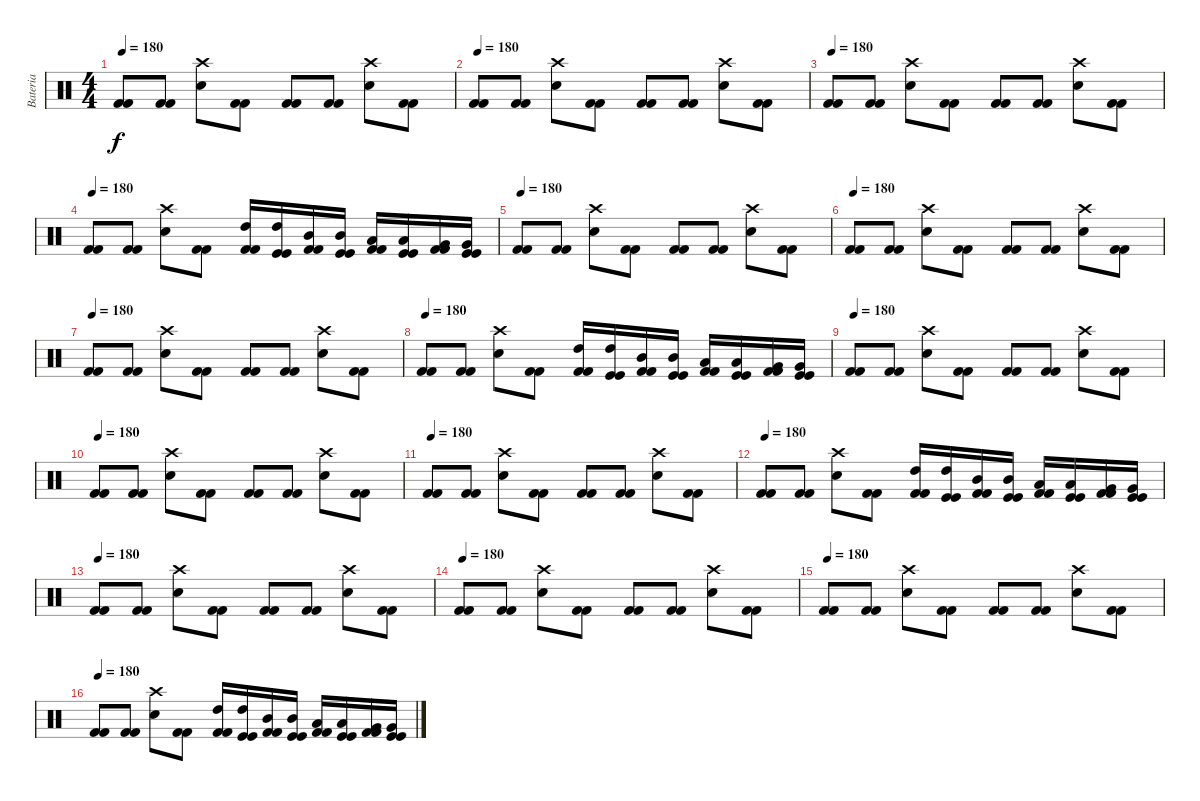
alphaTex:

\track ("Bateria" "Bateria") {instrument percussion}
\staff {score}
\articulation defaults
\ts (4 4)
\tempo 180
\clef neutral
\ks c
("Kick (hit) 2" "Kick (hit) 2").8{dy f} ("Kick (hit) 2" "Kick (hit) 2").8 ("Snare (hit) 2" "Crash high (hit)").8 ("Kick (hit) 2" "Kick (hit) 2").8 ("Kick (hit) 2" "Kick (hit) 2").8 ("Kick (hit) 2" "Kick (hit) 2").8 ("Snare (hit) 2" "Crash high (hit)").8 ("Kick (hit) 2" "Kick (hit) 2").8 |
\tempo 180
("Kick (hit) 2" "Kick (hit) 2").8 ("Kick (hit) 2" "Kick (hit) 2").8 ("Snare (hit) 2" "Crash high (hit)").8 ("Kick (hit) 2" "Kick (hit) 2").8 ("Kick (hit) 2" "Kick (hit) 2").8 ("Kick (hit) 2" "Kick (hit) 2").8 ("Snare (hit) 2" "Crash high (hit)").8 ("Kick (hit) 2" "Kick (hit) 2").8 |
\tempo 180
("Kick (hit) 2" "Kick (hit) 2").8 ("Kick (hit) 2" "Kick (hit) 2").8 ("Snare (hit) 2" "Crash high (hit)").8 ("Kick (hit) 2" "Kick (hit) 2").8 ("Kick (hit) 2" "Kick (hit) 2").8 ("Kick (hit) 2" "Kick (hit) 2").8 ("Snare (hit) 2" "Crash high (hit)").8 ("Kick (hit) 2" "Kick (hit) 2").8 |
\tempo 180
("Kick (hit) 2" "Kick (hit) 2").8 ("Kick (hit) 2" "Kick (hit) 2").8 ("Snare (hit) 2" "Crash high (hit)").8 ("Kick (hit) 2" "Kick (hit) 2").8 ("Kick (hit) 2" "Kick (hit) 2" "High Tom (hit)").16 ("Kick (hit)" "Kick (hit)" "High Tom (hit)").16 ("Kick (hit) 2" "Kick (hit) 2" "Mid Tom (hit)").16 ("Kick (hit)" "Kick (hit)" "Mid Tom (hit)").16 ("Kick (hit) 2" "Kick (hit) 2" "Low Tom (hit)").16 ("Kick (hit)" "Kick (hit)" "Low Tom (hit)").16 ("Kick (hit) 2" "Kick (hit) 2" "Very Low Tom (hit)").16 ("Kick (hit)" "Kick (hit)" "Very Low Tom (hit)").16 |
\tempo 180
("Kick (hit) 2" "Kick (hit) 2").8 ("Kick (hit) 2" "Kick (hit) 2").8 ("Snare (hit) 2" "Crash high (hit)").8 ("Kick (hit) 2" "Kick (hit) 2").8 ("Kick (hit) 2" "Kick (hit) 2").8 ("Kick (hit) 2" "Kick (hit) 2").8 ("Snare (hit) 2" "Crash high (hit)").8 ("Kick (hit) 2" "Kick (hit) 2").8 |
\tempo 180
("Kick (hit) 2" "Kick (hit) 2").8 ("Kick (hit) 2" "Kick (hit) 2").8 ("Snare (hit) 2" "Crash high (hit)").8 ("Kick (hit) 2" "Kick (hit) 2").8 ("Kick (hit) 2" "Kick (hit) 2").8 ("Kick (hit) 2" "Kick (hit) 2").8 ("Snare (hit) 2" "Crash high (hit)").8 ("Kick (hit) 2" "Kick (hit) 2").8 |
\tempo 180
("Kick (hit) 2" "Kick (hit) 2").8 ("Kick (hit) 2" "Kick (hit) 2").8 ("Snare (hit) 2" "Crash high (hit)").8 ("Kick (hit) 2" "Kick (hit) 2").8 ("Kick (hit) 2" "Kick (hit) 2").8 ("Kick (hit) 2" "Kick (hit) 2").8 ("Snare (hit) 2" "Crash high (hit)").8 ("Kick (hit) 2" "Kick (hit) 2").8 |
\tempo 180
("Kick (hit) 2" "Kick (hit) 2").8 ("Kick (hit) 2" "Kick (hit) 2").8 ("Snare (hit) 2" "Crash high (hit)").8 ("Kick (hit) 2" "Kick (hit) 2").8 ("Kick (hit) 2" "Kick (hit) 2" "High Tom (hit)").16 ("Kick (hit)" "Kick (hit)" "High Tom (hit)").16 ("Kick (hit) 2" "Kick (hit) 2" "Mid Tom (hit)").16 ("Kick (hit)" "Kick (hit)" "Mid Tom (hit)").16 ("Kick (hit) 2" "Kick (hit) 2" "Low Tom (hit)").16 ("Kick (hit)" "Kick (hit)" "Low Tom (hit)").16 ("Kick (hit) 2" "Kick (hit) 2" "Very Low Tom (hit)").16 ("Kick (hit)" "Kick (hit)" "Very Low Tom (hit)").16 |
\tempo 180
("Kick (hit) 2" "Kick (hit) 2").8 ("Kick (hit) 2" "Kick (hit) 2").8 ("Snare (hit) 2" "Crash high (hit)").8 ("Kick (hit) 2" "Kick (hit) 2").8 ("Kick (hit) 2" "Kick (hit) 2").8 ("Kick (hit) 2" "Kick (hit) 2").8 ("Snare (hit) 2" "Crash high (hit)").8 ("Kick (hit) 2" "Kick (hit) 2").8 |
\tempo 180
("Kick (hit) 2" "Kick (hit) 2").8 ("Kick (hit) 2" "Kick (hit) 2").8 ("Snare (hit) 2" "Crash high (hit)").8 ("Kick (hit) 2" "Kick (hit) 2").8 ("Kick (hit) 2" "Kick (hit) 2").8 ("Kick (hit) 2" "Kick (hit) 2").8 ("Snare (hit) 2" "Crash high (hit)").8 ("Kick (hit) 2" "Kick (hit) 2").8 |
\tempo 180
("Kick (hit) 2" "Kick (hit) 2").8 ("Kick (hit) 2" "Kick (hit) 2").8 ("Snare (hit) 2" "Crash high (hit)").8 ("Kick (hit) 2" "Kick (hit) 2").8 ("Kick (hit) 2" "Kick (hit) 2").8 ("Kick (hit) 2" "Kick (hit) 2").8 ("Snare (hit) 2" "Crash high (hit)").8 ("Kick (hit) 2" "Kick (hit) 2").8 |
\tempo 180
("Kick (hit) 2" "Kick (hit) 2").8 ("Kick (hit) 2" "Kick (hit) 2").8 ("Snare (hit) 2" "Crash high (hit)").8 ("Kick (hit) 2" "Kick (hit) 2").8 ("Kick (hit) 2" "Kick (hit) 2" "High Tom (hit)").16 ("Kick (hit)" "Kick (hit)" "High Tom (hit)").16 ("Kick (hit) 2" "Kick (hit) 2" "Mid Tom (hit)").16 ("Kick (hit)" "Kick (hit)" "Mid Tom (hit)").16 ("Kick (hit) 2" "Kick (hit) 2" "Low Tom (hit)").16 ("Kick (hit)" "Kick (hit)" "Low Tom (hit)").16 ("Kick (hit) 2" "Kick (hit) 2" "Very Low Tom (hit)").16 ("Kick (hit)" "Kick (hit)" "Very Low Tom (hit)").16 |
\tempo 180
("Kick (hit) 2" "Kick (hit) 2").8 ("Kick (hit) 2" "Kick (hit) 2").8 ("Snare (hit) 2" "Crash high (hit)").8 ("Kick (hit) 2" "Kick (hit) 2").8 ("Kick (hit) 2" "Kick (hit) 2").8 ("Kick (hit) 2" "Kick (hit) 2").8 ("Snare (hit) 2" "Crash high (hit)").8 ("Kick (hit) 2" "Kick (hit) 2").8 |
\tempo 180
("Kick (hit) 2" "Kick (hit) 2").8 ("Kick (hit) 2" "Kick (hit) 2").8 ("Snare (hit) 2" "Crash high (hit)").8 ("Kick (hit) 2" "Kick (hit) 2").8 ("Kick (hit) 2" "Kick (hit) 2").8 ("Kick (hit) 2" "Kick (hit) 2").8 ("Snare (hit) 2" "Crash high (hit)").8 ("Kick (hit) 2" "Kick (hit) 2").8 |
\tempo 180
("Kick (hit) 2" "Kick (hit) 2").8 ("Kick (hit) 2" "Kick (hit) 2").8 ("Snare (hit) 2" "Crash high (hit)").8 ("Kick (hit) 2" "Kick (hit) 2").8 ("Kick (hit) 2" "Kick (hit) 2").8 ("Kick (hit) 2" "Kick (hit) 2").8 ("Snare (hit) 2" "Crash high (hit)").8 ("Kick (hit) 2" "Kick (hit) 2").8 |
\tempo 180
("Kick (hit) 2" "Kick (hit) 2").8 ("Kick (hit) 2" "Kick (hit) 2").8 ("Snare (hit) 2" "Crash high (hit)").8 ("Kick (hit) 2" "Kick (hit) 2").8 ("Kick (hit) 2" "Kick (hit) 2" "High Tom (hit)").16 ("Kick (hit)" "Kick (hit)" "High Tom (hit)").16 ("Kick (hit) 2" "Kick (hit) 2" "Mid Tom (hit)").16 ("Kick (hit)" "Kick (hit)" "Mid Tom (hit)").16 ("Kick (hit) 2" "Kick (hit) 2" "Low Tom (hit)").16 ("Kick (hit)" "Kick (hit)" "Low Tom (hit)").16 ("Kick (hit) 2" "Kick (hit) 2" "Very Low Tom (hit)").16 ("Kick (hit)" "Kick (hit)" "Very Low Tom (hit)").16
